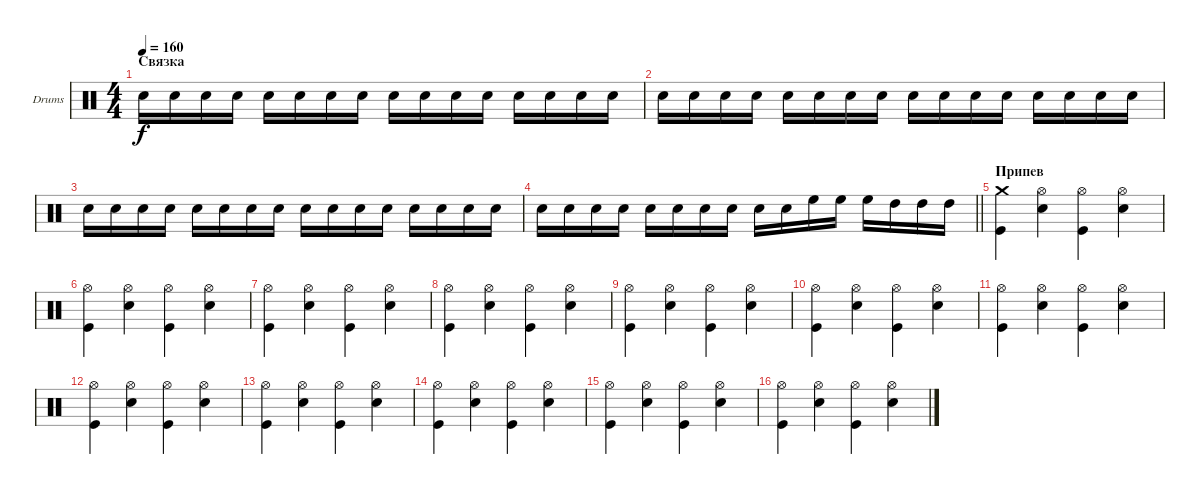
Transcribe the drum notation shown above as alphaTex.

\bracketExtendMode groupsimilarinstruments
\firstSystemTrackNameOrientation horizontal
\otherSystemsTrackNameOrientation horizontal
\track ("Drumkit" "Drums") {instrument percussion}
\staff {score}
\articulation defaults
\ts (4 4)
\section ("" "Связка")
\tempo 160
\clef neutral
\ks c "Snare (hit) 2".16{dy f} "Snare (hit) 2".16 "Snare (hit) 2".16 "Snare (hit) 2".16 "Snare (hit) 2".16 "Snare (hit) 2".16 "Snare (hit) 2".16 "Snare (hit) 2".16 "Snare (hit) 2".16 "Snare (hit) 2".16 "Snare (hit) 2".16 "Snare (hit) 2".16 "Snare (hit) 2".16 "Snare (hit) 2".16 "Snare (hit) 2".16 "Snare (hit) 2".16
|
"Snare (hit) 2".16 "Snare (hit) 2".16 "Snare (hit) 2".16 "Snare (hit) 2".16 "Snare (hit) 2".16 "Snare (hit) 2".16 "Snare (hit) 2".16 "Snare (hit) 2".16 "Snare (hit) 2".16 "Snare (hit) 2".16 "Snare (hit) 2".16 "Snare (hit) 2".16 "Snare (hit) 2".16 "Snare (hit) 2".16 "Snare (hit) 2".16 "Snare (hit) 2".16 |
"Snare (hit) 2".16 "Snare (hit) 2".16 "Snare (hit) 2".16 "Snare (hit) 2".16 "Snare (hit) 2".16 "Snare (hit) 2".16 "Snare (hit) 2".16 "Snare (hit) 2".16 "Snare (hit) 2".16 "Snare (hit) 2".16 "Snare (hit) 2".16 "Snare (hit) 2".16 "Snare (hit) 2".16 "Snare (hit) 2".16 "Snare (hit) 2".16 "Snare (hit) 2".16 |
\barLineRight lightlight "Snare (hit) 2".16 "Snare (hit) 2".16 "Snare (hit) 2".16 "Snare (hit) 2".16 "Snare (hit) 2".16 "Snare (hit) 2".16 "Snare (hit) 2".16 "Snare (hit) 2".16 "Snare (hit) 2".16 "Snare (hit) 2".16 "High Floor Tom (hit)".16 "High Floor Tom (hit)".16 "High Floor Tom (hit)".16 "High Tom (hit)".16 "High Tom (hit)".16 "High Tom (hit)".16
|
\section ("" "Припев")
("Crash medium (hit)" "Kick (hit)").4 ("Hi-Hat (open)" "Snare (hit) 2").4 ("Hi-Hat (open)" "Kick (hit)").4 ("Hi-Hat (open)" "Snare (hit) 2").4 |
("Hi-Hat (open)" "Kick (hit)").4 ("Hi-Hat (open)" "Snare (hit) 2").4 ("Hi-Hat (open)" "Kick (hit)").4 ("Hi-Hat (open)" "Snare (hit) 2").4 |
("Hi-Hat (open)" "Kick (hit)").4 ("Hi-Hat (open)" "Snare (hit) 2").4 ("Hi-Hat (open)" "Kick (hit)").4 ("Hi-Hat (open)" "Snare (hit) 2").4 |
("Hi-Hat (open)" "Kick (hit)").4 ("Hi-Hat (open)" "Snare (hit) 2").4 ("Hi-Hat (open)" "Kick (hit)").4 ("Hi-Hat (open)" "Snare (hit) 2").4 |
("Hi-Hat (open)" "Kick (hit)").4 ("Hi-Hat (open)" "Snare (hit) 2").4 ("Hi-Hat (open)" "Kick (hit)").4 ("Hi-Hat (open)" "Snare (hit) 2").4 |
("Hi-Hat (open)" "Kick (hit)").4 ("Hi-Hat (open)" "Snare (hit) 2").4 ("Hi-Hat (open)" "Kick (hit)").4 ("Hi-Hat (open)" "Snare (hit) 2").4 |
("Hi-Hat (open)" "Kick (hit)").4 ("Hi-Hat (open)" "Snare (hit) 2").4 ("Hi-Hat (open)" "Kick (hit)").4 ("Hi-Hat (open)" "Snare (hit) 2").4 |
("Hi-Hat (open)" "Kick (hit)").4 ("Hi-Hat (open)" "Snare (hit) 2").4 ("Hi-Hat (open)" "Kick (hit)").4 ("Hi-Hat (open)" "Snare (hit) 2").4 |
("Hi-Hat (open)" "Kick (hit)").4 ("Hi-Hat (open)" "Snare (hit) 2").4 ("Hi-Hat (open)" "Kick (hit)").4 ("Hi-Hat (open)" "Snare (hit) 2").4 |
("Hi-Hat (open)" "Kick (hit)").4 ("Hi-Hat (open)" "Snare (hit) 2").4 ("Hi-Hat (open)" "Kick (hit)").4 ("Hi-Hat (open)" "Snare (hit) 2").4 |
("Hi-Hat (open)" "Kick (hit)").4 ("Hi-Hat (open)" "Snare (hit) 2").4 ("Hi-Hat (open)" "Kick (hit)").4 ("Hi-Hat (open)" "Snare (hit) 2").4 |
("Hi-Hat (open)" "Kick (hit)").4 ("Hi-Hat (open)" "Snare (hit) 2").4 ("Hi-Hat (open)" "Kick (hit)").4 ("Hi-Hat (open)" "Snare (hit) 2").4
